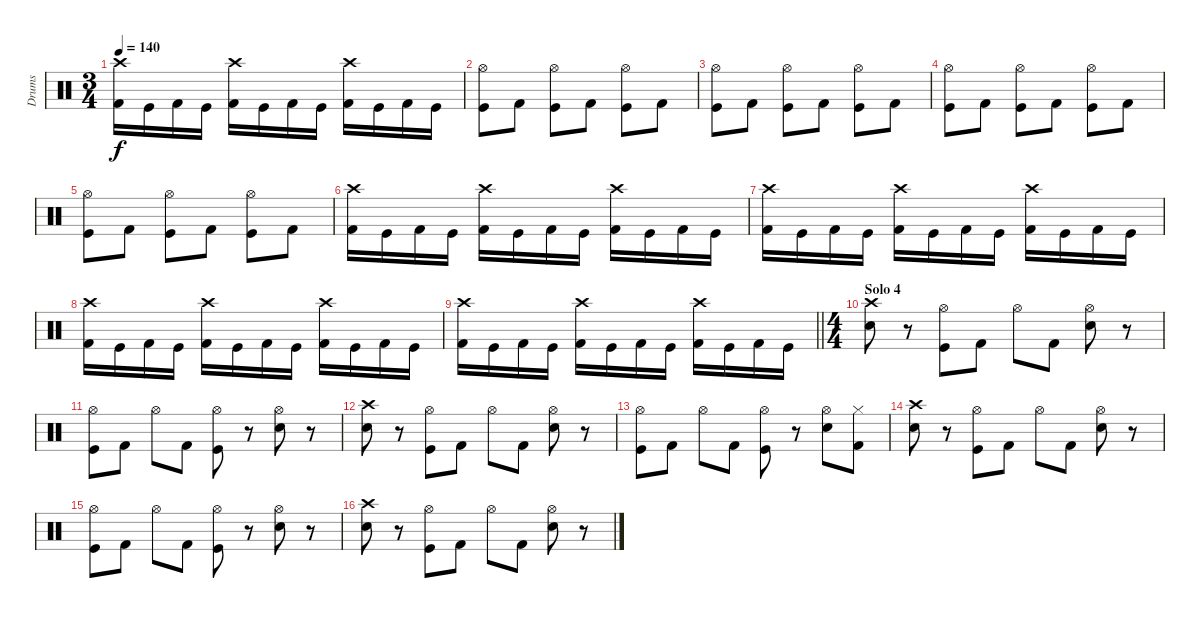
\track ("Drums" "Drums") {instrument percussion}
\staff {score}
\articulation defaults
\ts (3 4)
\tempo 140
\clef neutral
\ks c
("Crash high (hit)" "Kick (hit) 2").16{dy f} "Kick (hit)".16 "Kick (hit) 2".16 "Kick (hit)".16 ("Crash high (hit)" "Kick (hit) 2").16 "Kick (hit)".16 "Kick (hit) 2".16 "Kick (hit)".16 ("Crash high (hit)" "Kick (hit) 2").16 "Kick (hit)".16 "Kick (hit) 2".16 "Kick (hit)".16 |
("Kick (hit)" "Hi-Hat (open)").8 "Kick (hit) 2".8 ("Kick (hit)" "Hi-Hat (open)").8 "Kick (hit) 2".8 ("Kick (hit)" "Hi-Hat (open)").8 "Kick (hit) 2".8 |
("Kick (hit)" "Hi-Hat (open)").8 "Kick (hit) 2".8 ("Kick (hit)" "Hi-Hat (open)").8 "Kick (hit) 2".8 ("Kick (hit)" "Hi-Hat (open)").8 "Kick (hit) 2".8 |
("Kick (hit)" "Hi-Hat (open)").8 "Kick (hit) 2".8 ("Kick (hit)" "Hi-Hat (open)").8 "Kick (hit) 2".8 ("Kick (hit)" "Hi-Hat (open)").8 "Kick (hit) 2".8 |
("Kick (hit)" "Hi-Hat (open)").8 "Kick (hit) 2".8 ("Kick (hit)" "Hi-Hat (open)").8 "Kick (hit) 2".8 ("Kick (hit)" "Hi-Hat (open)").8 "Kick (hit) 2".8 |
("Crash high (hit)" "Kick (hit) 2").16 "Kick (hit)".16 "Kick (hit) 2".16 "Kick (hit)".16 ("Crash high (hit)" "Kick (hit) 2").16 "Kick (hit)".16 "Kick (hit) 2".16 "Kick (hit)".16 ("Crash high (hit)" "Kick (hit) 2").16 "Kick (hit)".16 "Kick (hit) 2".16 "Kick (hit)".16 |
("Crash high (hit)" "Kick (hit) 2").16 "Kick (hit)".16 "Kick (hit) 2".16 "Kick (hit)".16 ("Crash high (hit)" "Kick (hit) 2").16 "Kick (hit)".16 "Kick (hit) 2".16 "Kick (hit)".16 ("Crash high (hit)" "Kick (hit) 2").16 "Kick (hit)".16 "Kick (hit) 2".16 "Kick (hit)".16 |
("Crash high (hit)" "Kick (hit) 2").16 "Kick (hit)".16 "Kick (hit) 2".16 "Kick (hit)".16 ("Crash high (hit)" "Kick (hit) 2").16 "Kick (hit)".16 "Kick (hit) 2".16 "Kick (hit)".16 ("Crash high (hit)" "Kick (hit) 2").16 "Kick (hit)".16 "Kick (hit) 2".16 "Kick (hit)".16 |
\barLineRight lightlight
("Crash high (hit)" "Kick (hit) 2").16 "Kick (hit)".16 "Kick (hit) 2".16 "Kick (hit)".16 ("Crash high (hit)" "Kick (hit) 2").16 "Kick (hit)".16 "Kick (hit) 2".16 "Kick (hit)".16 ("Crash high (hit)" "Kick (hit) 2").16 "Kick (hit)".16 "Kick (hit) 2".16 "Kick (hit)".16 |
\ts (4 4)
\section ("" "Solo 4")
("Snare (hit) 2" "Crash high (hit)").8 r.8 ("Kick (hit)" "Hi-Hat (open)").8 "Kick (hit) 2".8 "Hi-Hat (open)".8 "Kick (hit) 2".8 ("Snare (hit) 2" "Hi-Hat (open)").8 r.8 |
("Kick (hit)" "Hi-Hat (open)").8 "Kick (hit) 2".8 "Hi-Hat (open)".8 "Kick (hit) 2".8 ("Kick (hit)" "Hi-Hat (open)").8 r.8 ("Snare (hit) 2" "Hi-Hat (open)").8 r.8 |
("Snare (hit) 2" "Crash high (hit)").8 r.8 ("Kick (hit)" "Hi-Hat (open)").8 "Kick (hit) 2".8 "Hi-Hat (open)".8 "Kick (hit) 2".8 ("Snare (hit) 2" "Hi-Hat (open)").8 r.8 |
("Kick (hit)" "Hi-Hat (open)").8 "Kick (hit) 2".8 "Hi-Hat (open)".8 "Kick (hit) 2".8 ("Kick (hit)" "Hi-Hat (open)").8 r.8 ("Snare (hit) 2" "Hi-Hat (open)").8 ("Kick (hit) 2" "Hi-Hat (closed)").8 |
("Snare (hit) 2" "Crash high (hit)").8 r.8 ("Kick (hit)" "Hi-Hat (open)").8 "Kick (hit) 2".8 "Hi-Hat (open)".8 "Kick (hit) 2".8 ("Snare (hit) 2" "Hi-Hat (open)").8 r.8 |
("Kick (hit)" "Hi-Hat (open)").8 "Kick (hit) 2".8 "Hi-Hat (open)".8 "Kick (hit) 2".8 ("Kick (hit)" "Hi-Hat (open)").8 r.8 ("Snare (hit) 2" "Hi-Hat (open)").8 r.8 |
("Snare (hit) 2" "Crash high (hit)").8 r.8 ("Kick (hit)" "Hi-Hat (open)").8 "Kick (hit) 2".8 "Hi-Hat (open)".8 "Kick (hit) 2".8 ("Snare (hit) 2" "Hi-Hat (open)").8 r.8
